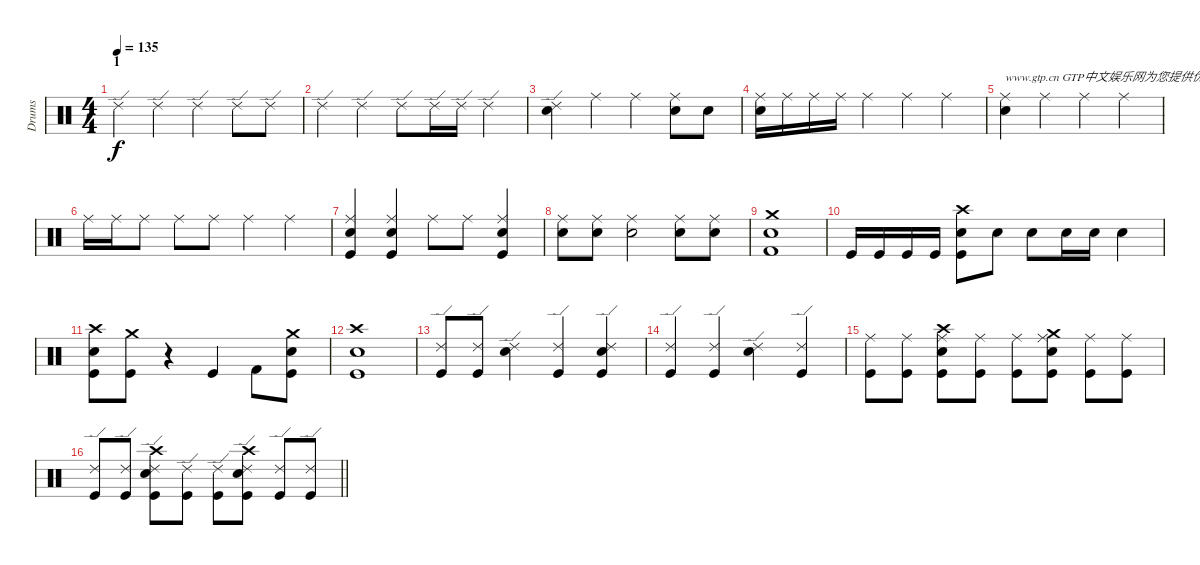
\track ("Drums" "Drums") {instrument percussion}
\staff {score}
\articulation defaults
\ts (4 4)
\section ("" "1")
\tempo 135
\clef neutral
\ks c "Ride (edge) 2".4{dy f} "Ride (edge) 2".4 "Ride (edge) 2".4 "Ride (edge) 2".8 "Ride (edge) 2".8
|
"Ride (edge) 2".4 "Ride (edge) 2".4 "Ride (edge) 2".8 "Ride (edge) 2".16 "Ride (edge) 2".16 "Ride (edge) 2".4 |
("Ride (edge) 2" "Snare (hit) 2").4 "Ride (middle)".4 "Ride (middle)".4 ("Ride (middle)" "Snare (hit) 2").8 "Snare (hit) 2".8 |
("Ride (middle)" "Snare (hit) 2").16 "Ride (middle)".16 "Ride (middle)".16 "Ride (middle)".16 "Ride (middle)".4 "Ride (middle)".4 "Ride (middle)".4 |
("Snare (hit) 2" "Ride (middle)").4{txt "www.gtp.cn GTP中文娱乐网为您提供优秀的谱子"} "Ride (middle)".4 "Ride (middle)".4 "Ride (middle)".4 |
"Ride (middle)".16 "Ride (middle)".16 "Ride (middle)".8 "Ride (middle)".8 "Ride (middle)".8 "Ride (middle)".4 "Ride (middle)".4 |
("Ride (middle)" "Snare (hit) 2" "Kick (hit)").4 ("Snare (hit) 2" "Kick (hit)" "Ride (middle)").4 "Ride (middle)".8 "Ride (middle)".8 ("Ride (middle)" "Snare (hit) 2" "Kick (hit)").4 |
("Snare (hit) 2" "Ride (middle)").8 ("Snare (hit) 2" "Ride (middle)").8 ("Snare (hit) 2" "Ride (middle)").2 ("Ride (middle)" "Snare (hit) 2").8 ("Ride (middle)" "Snare (hit) 2").8 |
("Crash medium (hit)" "Snare (hit) 2" "Kick (hit) 2").1 |
"Kick (hit)".16 "Kick (hit)".16 "Kick (hit)".16 "Kick (hit)".16 ("Electric Snare (hit)" "Crash high (hit)" "Kick (hit)").8 "Snare (hit) 2".8 "Snare (hit) 2".8 "Snare (hit) 2".16 "Snare (hit) 2".16 "Snare (hit) 2".4 |
("Snare (hit) 2" "Crash high (hit)" "Kick (hit)").8 ("Crash medium (hit)" "Kick (hit)").8 r.4 "Kick (hit)".4 "Kick (hit) 2".8 ("Kick (hit)" "Crash medium (hit)" "Snare (hit) 2").8 |
("Crash high (hit)" "Kick (hit)" "Snare (hit) 2").1 |
("Kick (hit)" "Ride (edge) 2").8 ("Kick (hit)" "Ride (edge) 2").8 ("Snare (hit) 2" "Ride (edge) 2").4 ("Kick (hit)" "Ride (edge) 2").4 ("Kick (hit)" "Snare (hit) 2" "Ride (edge) 2").4 |
("Kick (hit)" "Ride (edge) 2").4 ("Kick (hit)" "Ride (edge) 2").4 ("Snare (hit) 2" "Ride (edge) 2").4 ("Kick (hit)" "Ride (edge) 2").4 |
("Kick (hit)" "Ride (middle)").8 ("Kick (hit)" "Ride (middle)").8 ("Kick (hit)" "Snare (hit) 2" "Crash high (hit)" "Ride (middle)").8 ("Kick (hit)" "Ride (middle)").8 ("Kick (hit)" "Ride (middle)").8 ("Kick (hit)" "Snare (hit) 2" "Crash medium (hit)" "Ride (middle)").8 ("Kick (hit)" "Ride (middle)").8 ("Kick (hit)" "Ride (middle)").8 |
\barLineRight lightlight
("Kick (hit)" "Ride (edge) 2").8 ("Kick (hit)" "Ride (edge) 2").8 ("Kick (hit)" "Snare (hit) 2" "Crash high (hit)" "Ride (edge) 2").8 ("Kick (hit)" "Ride (edge) 2").8 ("Kick (hit)" "Ride (edge) 2").8 ("Kick (hit)" "Snare (hit) 2" "Crash high (hit)" "Ride (edge) 2").8 ("Kick (hit)" "Ride (edge) 2").8 ("Kick (hit)" "Ride (edge) 2").8
